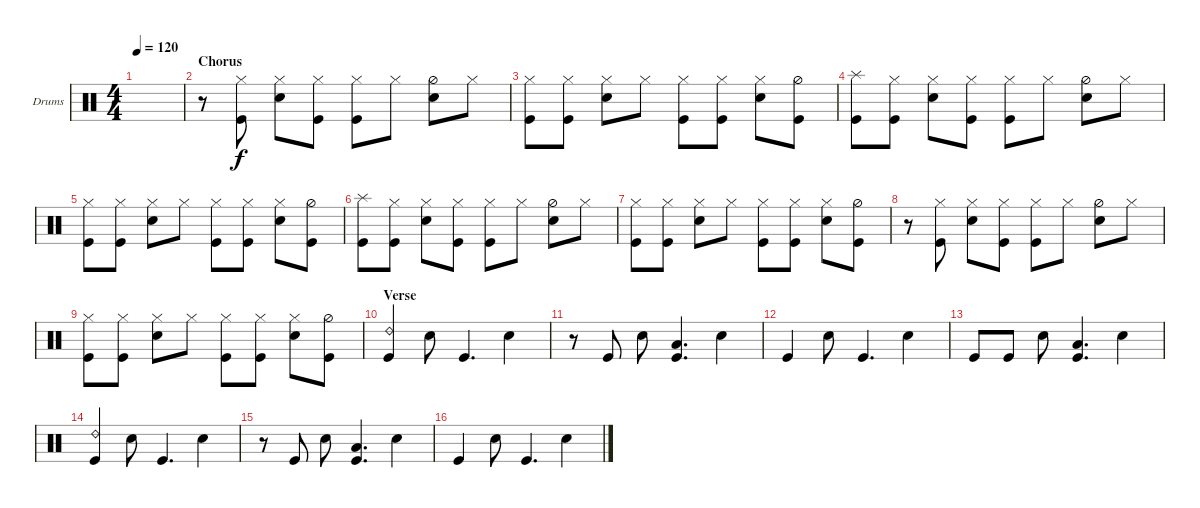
\defaultSystemsLayout 4
\bracketExtendMode groupsimilarinstruments
\firstSystemTrackNameOrientation horizontal
\otherSystemsTrackNameOrientation horizontal
\track ("Drumkit" "Drums") {instrument percussion}
\staff {score}
\articulation defaults
\ts (4 4)
\tempo 120
\clef neutral
\ks c
|
\section ("" "Chorus")
r.8 ("Kick (hit)" "Hi-Hat (closed)").8 ("Snare (hit) 2" "Hi-Hat (closed)").8 ("Kick (hit)" "Hi-Hat (closed)").8 ("Kick (hit)" "Hi-Hat (closed)").8 "Hi-Hat (closed)".8 ("Hi-Hat (half)" "Snare (hit) 2").8 "Hi-Hat (closed)".8 |
("Hi-Hat (closed)" "Kick (hit)").8 ("Hi-Hat (closed)" "Kick (hit)").8 ("Hi-Hat (closed)" "Snare (hit) 2").8 "Hi-Hat (closed)".8 ("Hi-Hat (closed)" "Kick (hit)").8 ("Hi-Hat (closed)" "Kick (hit)").8 ("Hi-Hat (closed)" "Snare (hit) 2").8 ("Hi-Hat (half)" "Kick (hit)").8 |
("Kick (hit)" "Splash (hit)").8 ("Kick (hit)" "Hi-Hat (closed)").8 ("Snare (hit) 2" "Hi-Hat (closed)").8 ("Kick (hit)" "Hi-Hat (closed)").8 ("Kick (hit)" "Hi-Hat (closed)").8 "Hi-Hat (closed)".8 ("Hi-Hat (half)" "Snare (hit) 2").8 "Hi-Hat (closed)".8 |
("Hi-Hat (closed)" "Kick (hit)").8 ("Hi-Hat (closed)" "Kick (hit)").8 ("Hi-Hat (closed)" "Snare (hit) 2").8 "Hi-Hat (closed)".8 ("Hi-Hat (closed)" "Kick (hit)").8 ("Hi-Hat (closed)" "Kick (hit)").8 ("Hi-Hat (closed)" "Snare (hit) 2").8 ("Hi-Hat (half)" "Kick (hit)").8 |
("Kick (hit)" "Splash (hit)").8 ("Kick (hit)" "Hi-Hat (closed)").8 ("Snare (hit) 2" "Hi-Hat (closed)").8 ("Kick (hit)" "Hi-Hat (closed)").8 ("Kick (hit)" "Hi-Hat (closed)").8 "Hi-Hat (closed)".8 ("Hi-Hat (half)" "Snare (hit) 2").8 "Hi-Hat (closed)".8 |
("Hi-Hat (closed)" "Kick (hit)").8 ("Hi-Hat (closed)" "Kick (hit)").8 ("Hi-Hat (closed)" "Snare (hit) 2").8 "Hi-Hat (closed)".8 ("Hi-Hat (closed)" "Kick (hit)").8 ("Hi-Hat (closed)" "Kick (hit)").8 ("Hi-Hat (closed)" "Snare (hit) 2").8 ("Hi-Hat (half)" "Kick (hit)").8 |
r.8 ("Kick (hit)" "Hi-Hat (closed)").8 ("Snare (hit) 2" "Hi-Hat (closed)").8 ("Kick (hit)" "Hi-Hat (closed)").8 ("Kick (hit)" "Hi-Hat (closed)").8 "Hi-Hat (closed)".8 ("Hi-Hat (half)" "Snare (hit) 2").8 "Hi-Hat (closed)".8 |
("Hi-Hat (closed)" "Kick (hit)").8 ("Hi-Hat (closed)" "Kick (hit)").8 ("Hi-Hat (closed)" "Snare (hit) 2").8 "Hi-Hat (closed)".8 ("Hi-Hat (closed)" "Kick (hit)").8 ("Hi-Hat (closed)" "Kick (hit)").8 ("Hi-Hat (closed)" "Snare (hit) 2").8 ("Hi-Hat (half)" "Kick (hit)").8 |
\section ("" "Verse")
("Ride (bell) 2" "Kick (hit)").4 "Snare (hit) 2".8 "Kick (hit)".4{d} "Snare (hit) 2".4 |
r.8 "Kick (hit)".8 "Snare (hit) 2".8 ("Kick (hit)" "Low Tom (hit)").4{d} "Snare (hit) 2".4 |
"Kick (hit)".4 "Snare (hit) 2".8 "Kick (hit)".4{d} "Snare (hit) 2".4 |
"Kick (hit)".8 "Kick (hit)".8 "Snare (hit) 2".8 ("Kick (hit)" "Low Tom (hit)").4{d} "Snare (hit) 2".4 |
("Ride (bell) 2" "Kick (hit)").4 "Snare (hit) 2".8 "Kick (hit)".4{d} "Snare (hit) 2".4 |
r.8 "Kick (hit)".8 "Snare (hit) 2".8 ("Kick (hit)" "Low Tom (hit)").4{d} "Snare (hit) 2".4 |
"Kick (hit)".4 "Snare (hit) 2".8 "Kick (hit)".4{d} "Snare (hit) 2".4
